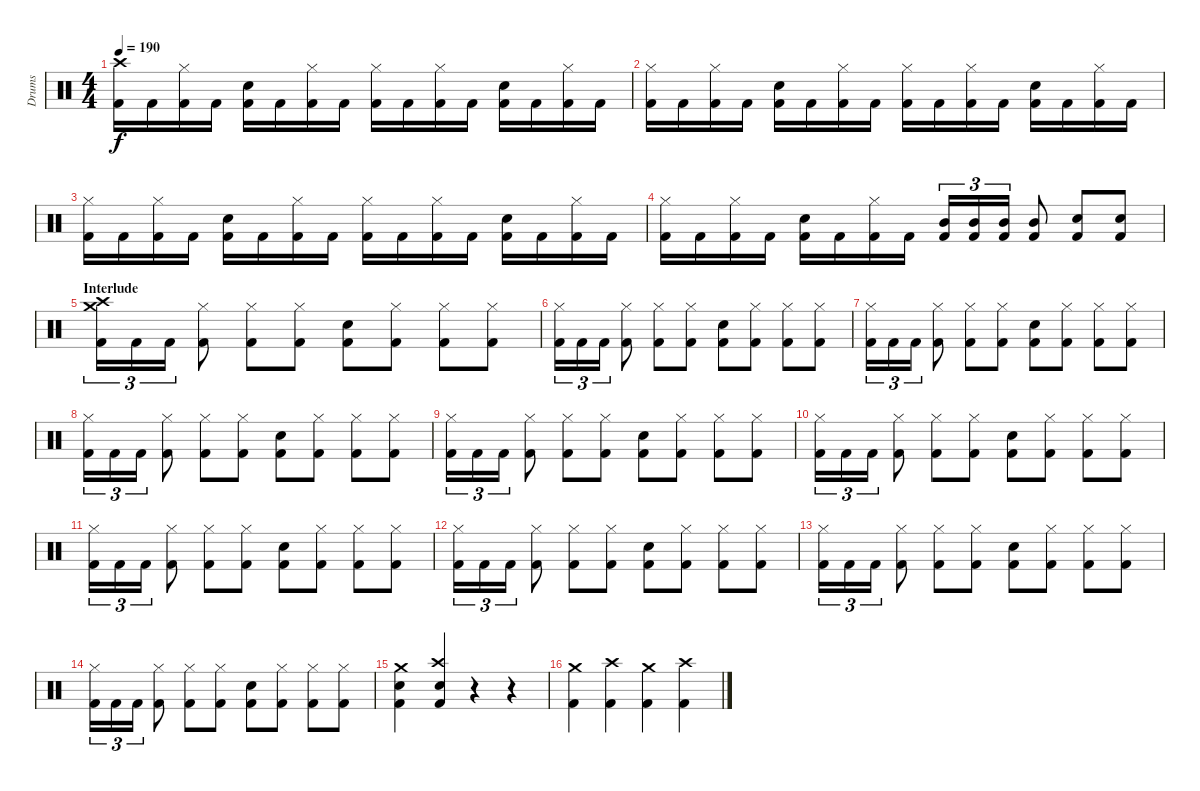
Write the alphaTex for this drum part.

\track ("Drums" "Drums") {instrument percussion}
\staff {score}
\articulation defaults
\ts (4 4)
\tempo 190
\clef neutral
\ks c
("Kick (hit) 2" "Crash high (hit)").16{dy f} "Kick (hit) 2".16 ("Kick (hit) 2" "Hi-Hat (closed)").16 "Kick (hit) 2".16 ("Kick (hit) 2" "Electric Snare (hit)").16 "Kick (hit) 2".16 ("Kick (hit) 2" "Hi-Hat (closed)").16 "Kick (hit) 2".16 ("Kick (hit) 2" "Hi-Hat (closed)").16 "Kick (hit) 2".16 ("Kick (hit) 2" "Hi-Hat (closed)").16 "Kick (hit) 2".16 ("Kick (hit) 2" "Electric Snare (hit)").16 "Kick (hit) 2".16 ("Kick (hit) 2" "Hi-Hat (closed)").16 "Kick (hit) 2".16 |
("Kick (hit) 2" "Hi-Hat (closed)").16 "Kick (hit) 2".16 ("Kick (hit) 2" "Hi-Hat (closed)").16 "Kick (hit) 2".16 ("Kick (hit) 2" "Electric Snare (hit)").16 "Kick (hit) 2".16 ("Kick (hit) 2" "Hi-Hat (closed)").16 "Kick (hit) 2".16 ("Kick (hit) 2" "Hi-Hat (closed)").16 "Kick (hit) 2".16 ("Kick (hit) 2" "Hi-Hat (closed)").16 "Kick (hit) 2".16 ("Kick (hit) 2" "Electric Snare (hit)").16 "Kick (hit) 2".16 ("Kick (hit) 2" "Hi-Hat (closed)").16 "Kick (hit) 2".16 |
("Kick (hit) 2" "Hi-Hat (closed)").16 "Kick (hit) 2".16 ("Kick (hit) 2" "Hi-Hat (closed)").16 "Kick (hit) 2".16 ("Kick (hit) 2" "Electric Snare (hit)").16 "Kick (hit) 2".16 ("Kick (hit) 2" "Hi-Hat (closed)").16 "Kick (hit) 2".16 ("Kick (hit) 2" "Hi-Hat (closed)").16 "Kick (hit) 2".16 ("Kick (hit) 2" "Hi-Hat (closed)").16 "Kick (hit) 2".16 ("Kick (hit) 2" "Electric Snare (hit)").16 "Kick (hit) 2".16 ("Kick (hit) 2" "Hi-Hat (closed)").16 "Kick (hit) 2".16 |
("Kick (hit) 2" "Hi-Hat (closed)").16 "Kick (hit) 2".16 ("Kick (hit) 2" "Hi-Hat (closed)").16 "Kick (hit) 2".16 ("Kick (hit) 2" "Electric Snare (hit)").16 "Kick (hit) 2".16 ("Kick (hit) 2" "Hi-Hat (closed)").16 "Kick (hit) 2".16 ("Kick (hit) 2" "Mid Tom (hit)").16{tu (3 2)} ("Kick (hit) 2" "Mid Tom (hit)").16{tu (3 2)} ("Kick (hit) 2" "Mid Tom (hit)").16{tu (3 2)} ("Kick (hit) 2" "Mid Tom (hit)").8 ("Kick (hit) 2" "Electric Snare (hit)").8 ("Kick (hit) 2" "Electric Snare (hit)").8 |
\section ("" "Interlude")
("Kick (hit) 2" "Crash high (hit)" "Crash medium (hit)").16{tu (3 2)} "Kick (hit) 2".16{tu (3 2)} "Kick (hit) 2".16{tu (3 2)} ("Kick (hit) 2" "Hi-Hat (closed)").8 ("Kick (hit) 2" "Hi-Hat (closed)").8 ("Kick (hit) 2" "Hi-Hat (closed)").8 ("Kick (hit) 2" "Electric Snare (hit)").8 ("Kick (hit) 2" "Hi-Hat (closed)").8 ("Kick (hit) 2" "Hi-Hat (closed)").8 ("Kick (hit) 2" "Hi-Hat (closed)").8 |
("Kick (hit) 2" "Hi-Hat (closed)").16{tu (3 2)} "Kick (hit) 2".16{tu (3 2)} "Kick (hit) 2".16{tu (3 2)} ("Kick (hit) 2" "Hi-Hat (closed)").8 ("Kick (hit) 2" "Hi-Hat (closed)").8 ("Kick (hit) 2" "Hi-Hat (closed)").8 ("Kick (hit) 2" "Electric Snare (hit)").8 ("Kick (hit) 2" "Hi-Hat (closed)").8 ("Kick (hit) 2" "Hi-Hat (closed)").8 ("Kick (hit) 2" "Hi-Hat (closed)").8 |
("Kick (hit) 2" "Hi-Hat (closed)").16{tu (3 2)} "Kick (hit) 2".16{tu (3 2)} "Kick (hit) 2".16{tu (3 2)} ("Kick (hit) 2" "Hi-Hat (closed)").8 ("Kick (hit) 2" "Hi-Hat (closed)").8 ("Kick (hit) 2" "Hi-Hat (closed)").8 ("Kick (hit) 2" "Electric Snare (hit)").8 ("Kick (hit) 2" "Hi-Hat (closed)").8 ("Kick (hit) 2" "Hi-Hat (closed)").8 ("Kick (hit) 2" "Hi-Hat (closed)").8 |
("Kick (hit) 2" "Hi-Hat (closed)").16{tu (3 2)} "Kick (hit) 2".16{tu (3 2)} "Kick (hit) 2".16{tu (3 2)} ("Kick (hit) 2" "Hi-Hat (closed)").8 ("Kick (hit) 2" "Hi-Hat (closed)").8 ("Kick (hit) 2" "Hi-Hat (closed)").8 ("Kick (hit) 2" "Electric Snare (hit)").8 ("Kick (hit) 2" "Hi-Hat (closed)").8 ("Kick (hit) 2" "Hi-Hat (closed)").8 ("Kick (hit) 2" "Hi-Hat (closed)").8 |
("Kick (hit) 2" "Hi-Hat (closed)").16{tu (3 2)} "Kick (hit) 2".16{tu (3 2)} "Kick (hit) 2".16{tu (3 2)} ("Kick (hit) 2" "Hi-Hat (closed)").8 ("Kick (hit) 2" "Hi-Hat (closed)").8 ("Kick (hit) 2" "Hi-Hat (closed)").8 ("Kick (hit) 2" "Electric Snare (hit)").8 ("Kick (hit) 2" "Hi-Hat (closed)").8 ("Kick (hit) 2" "Hi-Hat (closed)").8 ("Kick (hit) 2" "Hi-Hat (closed)").8 |
("Kick (hit) 2" "Hi-Hat (closed)").16{tu (3 2)} "Kick (hit) 2".16{tu (3 2)} "Kick (hit) 2".16{tu (3 2)} ("Kick (hit) 2" "Hi-Hat (closed)").8 ("Kick (hit) 2" "Hi-Hat (closed)").8 ("Kick (hit) 2" "Hi-Hat (closed)").8 ("Kick (hit) 2" "Electric Snare (hit)").8 ("Kick (hit) 2" "Hi-Hat (closed)").8 ("Kick (hit) 2" "Hi-Hat (closed)").8 ("Kick (hit) 2" "Hi-Hat (closed)").8 |
("Kick (hit) 2" "Hi-Hat (closed)").16{tu (3 2)} "Kick (hit) 2".16{tu (3 2)} "Kick (hit) 2".16{tu (3 2)} ("Kick (hit) 2" "Hi-Hat (closed)").8 ("Kick (hit) 2" "Hi-Hat (closed)").8 ("Kick (hit) 2" "Hi-Hat (closed)").8 ("Kick (hit) 2" "Electric Snare (hit)").8 ("Kick (hit) 2" "Hi-Hat (closed)").8 ("Kick (hit) 2" "Hi-Hat (closed)").8 ("Kick (hit) 2" "Hi-Hat (closed)").8 |
("Kick (hit) 2" "Hi-Hat (closed)").16{tu (3 2)} "Kick (hit) 2".16{tu (3 2)} "Kick (hit) 2".16{tu (3 2)} ("Kick (hit) 2" "Hi-Hat (closed)").8 ("Kick (hit) 2" "Hi-Hat (closed)").8 ("Kick (hit) 2" "Hi-Hat (closed)").8 ("Kick (hit) 2" "Electric Snare (hit)").8 ("Kick (hit) 2" "Hi-Hat (closed)").8 ("Kick (hit) 2" "Hi-Hat (closed)").8 ("Kick (hit) 2" "Hi-Hat (closed)").8 |
("Kick (hit) 2" "Hi-Hat (closed)").16{tu (3 2)} "Kick (hit) 2".16{tu (3 2)} "Kick (hit) 2".16{tu (3 2)} ("Kick (hit) 2" "Hi-Hat (closed)").8 ("Kick (hit) 2" "Hi-Hat (closed)").8 ("Kick (hit) 2" "Hi-Hat (closed)").8 ("Kick (hit) 2" "Electric Snare (hit)").8 ("Kick (hit) 2" "Hi-Hat (closed)").8 ("Kick (hit) 2" "Hi-Hat (closed)").8 ("Kick (hit) 2" "Hi-Hat (closed)").8 |
("Kick (hit) 2" "Hi-Hat (closed)").16{tu (3 2)} "Kick (hit) 2".16{tu (3 2)} "Kick (hit) 2".16{tu (3 2)} ("Kick (hit) 2" "Hi-Hat (closed)").8 ("Kick (hit) 2" "Hi-Hat (closed)").8 ("Kick (hit) 2" "Hi-Hat (closed)").8 ("Kick (hit) 2" "Electric Snare (hit)").8 ("Kick (hit) 2" "Hi-Hat (closed)").8 ("Kick (hit) 2" "Hi-Hat (closed)").8 ("Kick (hit) 2" "Hi-Hat (closed)").8 |
("Kick (hit) 2" "Electric Snare (hit)" "Crash medium (hit)").4 ("Kick (hit) 2" "Electric Snare (hit)" "Crash high (hit)").4 r.4 r.4 |
("Kick (hit) 2" "Crash medium (hit)").4 ("Kick (hit) 2" "Crash high (hit)").4 ("Kick (hit) 2" "Crash medium (hit)").4 ("Kick (hit) 2" "Crash high (hit)").4
